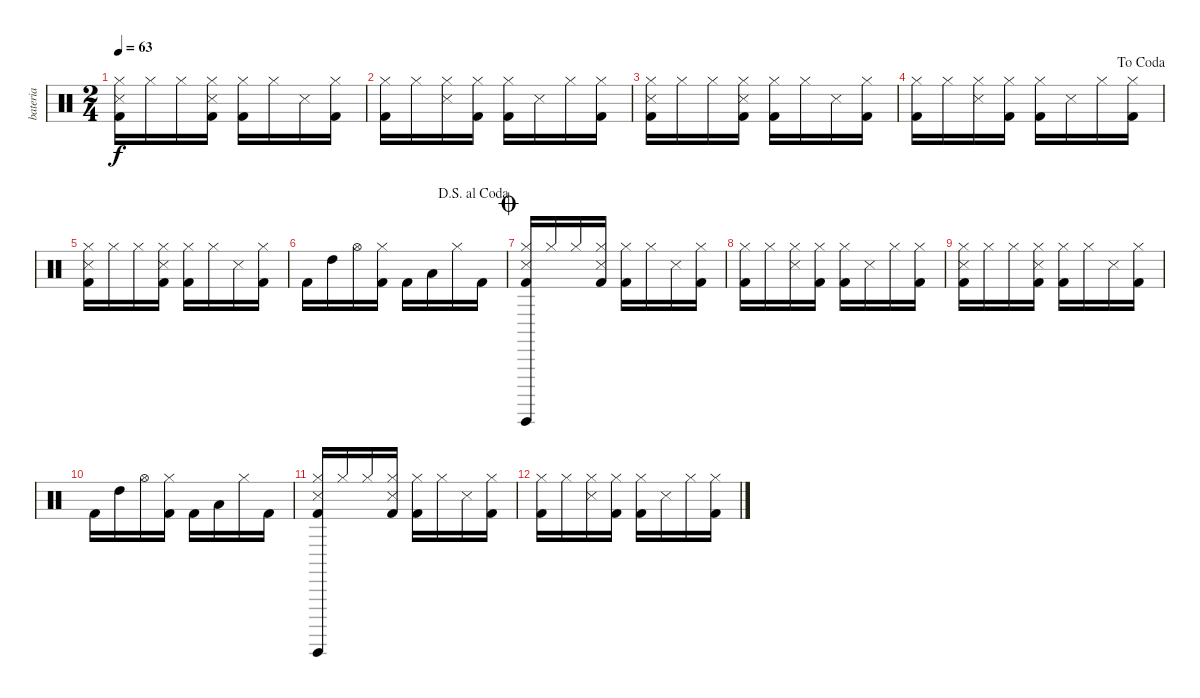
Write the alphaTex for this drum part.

\track ("bateria" "bateria") {instrument percussion}
\staff {score}
\articulation defaults
\ts (2 4)
\tempo 63
\clef neutral
\ks c
("Hi-Hat (closed)" "Snare (side stick) 3" "Kick (hit) 2").16{dy f} "Hi-Hat (closed)".16 "Hi-Hat (closed)".16 ("Hi-Hat (closed)" "Snare (side stick) 3" "Kick (hit) 2").16 ("Hi-Hat (closed)" "Kick (hit) 2").16 "Hi-Hat (closed)".16 "Snare (side stick) 3".16 ("Hi-Hat (closed)" "Kick (hit) 2").16 |
("Hi-Hat (closed)" "Kick (hit) 2").16 "Hi-Hat (closed)".16 ("Hi-Hat (closed)" "Snare (side stick) 3").16 ("Hi-Hat (closed)" "Kick (hit) 2").16 ("Hi-Hat (closed)" "Kick (hit) 2").16 "Snare (side stick) 3".16 "Hi-Hat (closed)".16 ("Hi-Hat (closed)" "Kick (hit) 2").16 |
("Hi-Hat (closed)" "Snare (side stick) 3" "Kick (hit) 2").16 "Hi-Hat (closed)".16 "Hi-Hat (closed)".16 ("Hi-Hat (closed)" "Snare (side stick) 3" "Kick (hit) 2").16 ("Hi-Hat (closed)" "Kick (hit) 2").16 "Hi-Hat (closed)".16 "Snare (side stick) 3".16 ("Hi-Hat (closed)" "Kick (hit) 2").16 |
\jump dacoda
("Hi-Hat (closed)" "Kick (hit) 2").16 "Hi-Hat (closed)".16 ("Hi-Hat (closed)" "Snare (side stick) 3").16 ("Hi-Hat (closed)" "Kick (hit) 2").16 ("Hi-Hat (closed)" "Kick (hit) 2").16 "Snare (side stick) 3".16 "Hi-Hat (closed)".16 ("Hi-Hat (closed)" "Kick (hit) 2").16 |
("Hi-Hat (closed)" "Snare (side stick) 3" "Kick (hit) 2").16 "Hi-Hat (closed)".16 "Hi-Hat (closed)".16 ("Hi-Hat (closed)" "Snare (side stick) 3" "Kick (hit) 2").16 ("Hi-Hat (closed)" "Kick (hit) 2").16 "Hi-Hat (closed)".16 "Snare (side stick) 3".16 ("Hi-Hat (closed)" "Kick (hit) 2").16 |
\jump dalsegnoalcoda "Kick (hit) 2".16 "High Tom (hit)".16 "Hi-Hat (open)".16
("Hi-Hat (closed)" "Kick (hit) 2").16 "Kick (hit) 2".16 "Low Tom (hit)".16 "Hi-Hat (closed)".16 "Kick (hit) 2".16 |
\jump coda
("Hi-Hat (closed)" "Snare (side stick) 3" "Kick (hit) 2" "Guiro (hit)").16 "Hi-Hat (closed)".16 "Hi-Hat (closed)".16 ("Hi-Hat (closed)" "Snare (side stick) 3" "Kick (hit) 2").16 ("Hi-Hat (closed)" "Kick (hit) 2").16 "Hi-Hat (closed)".16 "Snare (side stick) 3".16 ("Hi-Hat (closed)" "Kick (hit) 2").16 |
("Hi-Hat (closed)" "Kick (hit) 2").16 "Hi-Hat (closed)".16 ("Hi-Hat (closed)" "Snare (side stick) 3").16 ("Hi-Hat (closed)" "Kick (hit) 2").16 ("Hi-Hat (closed)" "Kick (hit) 2").16 "Snare (side stick) 3".16 "Hi-Hat (closed)".16 ("Hi-Hat (closed)" "Kick (hit) 2").16 |
("Hi-Hat (closed)" "Snare (side stick) 3" "Kick (hit) 2").16 "Hi-Hat (closed)".16 "Hi-Hat (closed)".16 ("Hi-Hat (closed)" "Snare (side stick) 3" "Kick (hit) 2").16 ("Hi-Hat (closed)" "Kick (hit) 2").16 "Hi-Hat (closed)".16 "Snare (side stick) 3".16 ("Hi-Hat (closed)" "Kick (hit) 2").16 |
"Kick (hit) 2".16{volume 5} "High Tom (hit)".16 "Hi-Hat (open)".16 ("Hi-Hat (closed)" "Kick (hit) 2").16 "Kick (hit) 2".16 "Low Tom (hit)".16 "Hi-Hat (closed)".16 "Kick (hit) 2".16 |
("Hi-Hat (closed)" "Snare (side stick) 3" "Kick (hit) 2" "Guiro (hit)").16 "Hi-Hat (closed)".16 "Hi-Hat (closed)".16 ("Hi-Hat (closed)" "Snare (side stick) 3" "Kick (hit) 2").16 ("Hi-Hat (closed)" "Kick (hit) 2").16 "Hi-Hat (closed)".16 "Snare (side stick) 3".16 ("Hi-Hat (closed)" "Kick (hit) 2").16 |
("Hi-Hat (closed)" "Kick (hit) 2").16 "Hi-Hat (closed)".16 ("Hi-Hat (closed)" "Snare (side stick) 3").16 ("Hi-Hat (closed)" "Kick (hit) 2").16 ("Hi-Hat (closed)" "Kick (hit) 2").16 "Snare (side stick) 3".16 "Hi-Hat (closed)".16 ("Hi-Hat (closed)" "Kick (hit) 2").16
